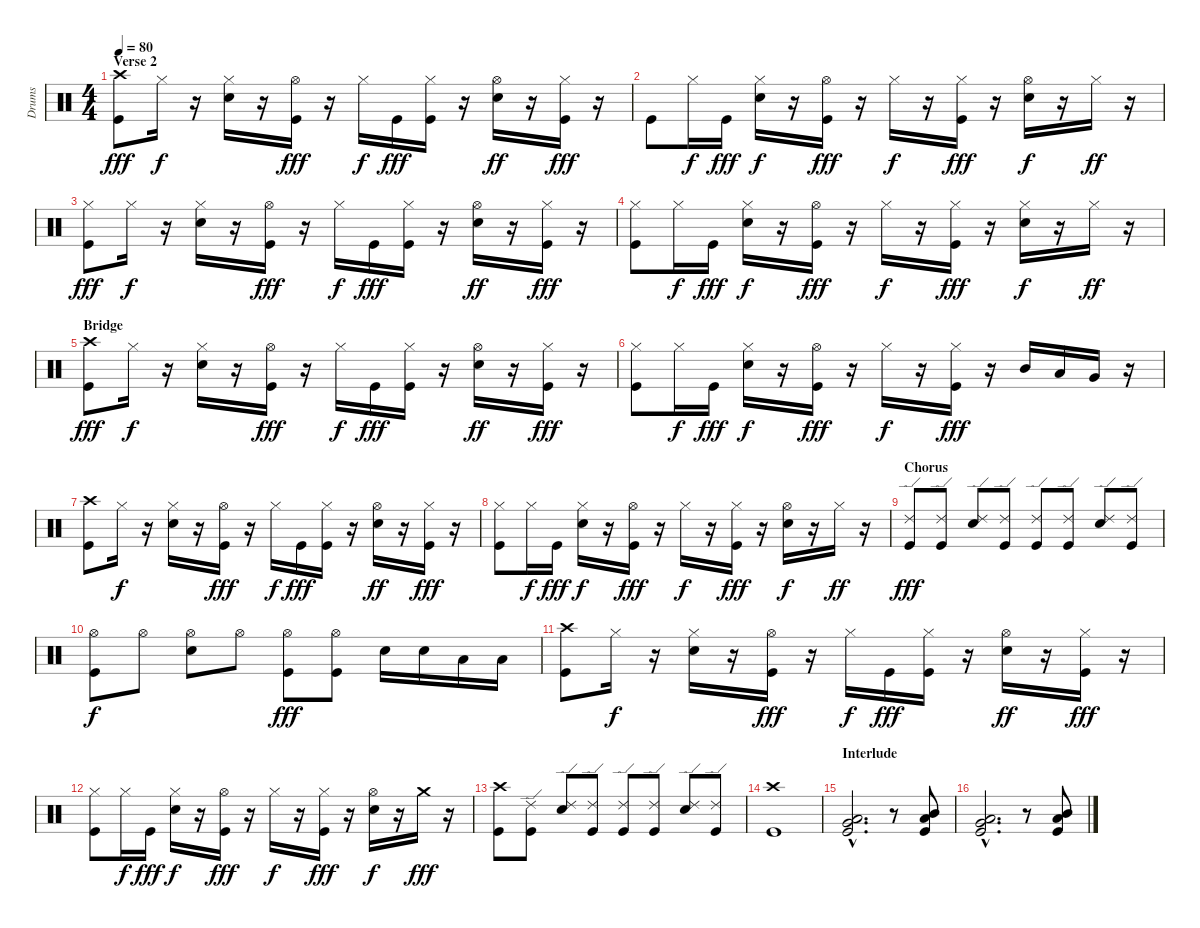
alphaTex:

\track ("Drums" "Drums") {instrument percussion}
\staff {score}
\articulation defaults
\ts (4 4)
\section ("" "Verse 2")
\tempo 80
\clef neutral
\ks c
("Crash high (hit)" "Kick (hit)").8{dy fff} "Hi-Hat (closed)".16{dy f} r.16 ("Hi-Hat (closed)" "Snare (hit) 2").16 r.16 ("Hi-Hat (open)" "Kick (hit)").16{dy fff} r.16 "Hi-Hat (closed)".16{dy f} "Kick (hit)".16{dy fff} ("Hi-Hat (closed)" "Kick (hit)").16 r.16 ("Hi-Hat (open)" "Snare (hit) 2").16{dy ff} r.16 ("Hi-Hat (closed)" "Kick (hit)").16{dy fff} r.16 |
"Kick (hit)".8 "Hi-Hat (closed)".16{dy f} "Kick (hit)".16{dy fff} ("Hi-Hat (closed)" "Snare (hit) 2").16{dy f} r.16 ("Hi-Hat (open)" "Kick (hit)").16{dy fff} r.16 "Hi-Hat (closed)".16{dy f} r.16 ("Hi-Hat (closed)" "Kick (hit)").16{dy fff} r.16 ("Hi-Hat (open)" "Snare (hit) 2").16{dy f} r.16 "Hi-Hat (closed)".16{dy ff} r.16 |
("Hi-Hat (closed)" "Kick (hit)").8{dy fff} "Hi-Hat (closed)".16{dy f} r.16 ("Hi-Hat (closed)" "Snare (hit) 2").16 r.16 ("Hi-Hat (open)" "Kick (hit)").16{dy fff} r.16 "Hi-Hat (closed)".16{dy f} "Kick (hit)".16{dy fff} ("Hi-Hat (closed)" "Kick (hit)").16 r.16 ("Hi-Hat (open)" "Snare (hit) 2").16{dy ff} r.16 ("Hi-Hat (closed)" "Kick (hit)").16{dy fff} r.16 |
("Hi-Hat (closed)" "Kick (hit)").8 "Hi-Hat (closed)".16{dy f} "Kick (hit)".16{dy fff} ("Hi-Hat (closed)" "Snare (hit) 2").16{dy f} r.16 ("Hi-Hat (open)" "Kick (hit)").16{dy fff} r.16 "Hi-Hat (closed)".16{dy f} r.16 ("Hi-Hat (closed)" "Kick (hit)").16{dy fff} r.16 ("Hi-Hat (closed)" "Snare (hit) 2").16{dy f} r.16 "Hi-Hat (closed)".16{dy ff} r.16 |
\section ("" "Bridge")
("Crash high (hit)" "Kick (hit)").8{dy fff} "Hi-Hat (closed)".16{dy f} r.16 ("Hi-Hat (closed)" "Snare (hit) 2").16 r.16 ("Hi-Hat (open)" "Kick (hit)").16{dy fff} r.16 "Hi-Hat (closed)".16{dy f} "Kick (hit)".16{dy fff} ("Hi-Hat (closed)" "Kick (hit)").16 r.16 ("Hi-Hat (open)" "Snare (hit) 2").16{dy ff} r.16 ("Hi-Hat (closed)" "Kick (hit)").16{dy fff} r.16 |
("Hi-Hat (closed)" "Kick (hit)").8 "Hi-Hat (closed)".16{dy f} "Kick (hit)".16{dy fff} ("Hi-Hat (closed)" "Snare (hit) 2").16{dy f} r.16 ("Hi-Hat (open)" "Kick (hit)").16{dy fff} r.16 "Hi-Hat (closed)".16{dy f} r.16 ("Hi-Hat (closed)" "Kick (hit)").16{dy fff} r.16 "Mid Tom (hit)".16 "Low Tom (hit)".16 "Very Low Tom (hit)".16 r.16 |
("Crash high (hit)" "Kick (hit)").8 "Hi-Hat (closed)".16{dy f} r.16 ("Hi-Hat (closed)" "Snare (hit) 2").16 r.16 ("Hi-Hat (open)" "Kick (hit)").16{dy fff} r.16 "Hi-Hat (closed)".16{dy f} "Kick (hit)".16{dy fff} ("Hi-Hat (closed)" "Kick (hit)").16 r.16 ("Hi-Hat (open)" "Snare (hit) 2").16{dy ff} r.16 ("Hi-Hat (closed)" "Kick (hit)").16{dy fff} r.16 |
("Hi-Hat (closed)" "Kick (hit)").8 "Hi-Hat (closed)".16{dy f} "Kick (hit)".16{dy fff} ("Hi-Hat (closed)" "Snare (hit) 2").16{dy f} r.16 ("Hi-Hat (open)" "Kick (hit)").16{dy fff} r.16 "Hi-Hat (closed)".16{dy f} r.16 ("Hi-Hat (closed)" "Kick (hit)").16{dy fff} r.16 ("Hi-Hat (open)" "Snare (hit) 2").16{dy f} r.16 "Hi-Hat (closed)".16{dy ff} r.16 |
\section ("" "Chorus")
("Ride (edge) 2" "Kick (hit)").8{dy fff} ("Ride (edge) 2" "Kick (hit)").8 ("Ride (edge) 2" "Snare (hit) 2").8 ("Ride (edge) 2" "Kick (hit)").8 ("Ride (edge) 2" "Kick (hit)").8 ("Ride (edge) 2" "Kick (hit)").8 ("Ride (edge) 2" "Snare (hit) 2").8 ("Ride (edge) 2" "Kick (hit)").8 |
("Hi-Hat (open)" "Kick (hit)").8{dy f} "Hi-Hat (open)".8 ("Hi-Hat (open)" "Snare (hit) 2").8 "Hi-Hat (open)".8 ("Hi-Hat (open)" "Kick (hit)").8{dy fff} ("Hi-Hat (open)" "Kick (hit)").8 "Snare (hit) 2".16 "Snare (hit) 2".16 "Low Tom (hit)".16 "Low Tom (hit)".16 |
("Crash high (hit)" "Kick (hit)").8 "Hi-Hat (closed)".16{dy f} r.16 ("Hi-Hat (closed)" "Snare (hit) 2").16 r.16 ("Hi-Hat (open)" "Kick (hit)").16{dy fff} r.16 "Hi-Hat (closed)".16{dy f} "Kick (hit)".16{dy fff} ("Hi-Hat (closed)" "Kick (hit)").16 r.16 ("Hi-Hat (open)" "Snare (hit) 2").16{dy ff} r.16 ("Hi-Hat (closed)" "Kick (hit)").16{dy fff} r.16 |
("Hi-Hat (closed)" "Kick (hit)").8 "Hi-Hat (closed)".16{dy f} "Kick (hit)".16{dy fff} ("Hi-Hat (closed)" "Snare (hit) 2").16{dy f} r.16 ("Hi-Hat (open)" "Kick (hit)").16{dy fff} r.16 "Hi-Hat (closed)".16{dy f} r.16 ("Hi-Hat (closed)" "Kick (hit)").16{dy fff} r.16 ("Hi-Hat (open)" "Snare (hit) 2").16{dy f} r.16 "Crash medium (hit)".16{dy fff} r.16 |
("Crash high (hit)" "Kick (hit)").8 ("Ride (edge) 2" "Kick (hit)").8 ("Ride (edge) 2" "Snare (hit) 2").8 ("Ride (edge) 2" "Kick (hit)").8 ("Ride (edge) 2" "Kick (hit)").8 ("Ride (edge) 2" "Kick (hit)").8 ("Ride (edge) 2" "Snare (hit) 2").8 ("Ride (edge) 2" "Kick (hit)").8 |
("Crash high (hit)" "Kick (hit)").1 |
\section ("" "Interlude")
("Low Floor Tom (hit)"{hac} "Very Low Tom (hit)"{hac} "Kick (hit)"{hac}).2{d} r.8 ("Mid Tom (hit)" "Low Tom (hit)" "Kick (hit)").8 |
("Low Floor Tom (hit)"{hac} "Very Low Tom (hit)"{hac} "Kick (hit)"{hac}).2{d} r.8 ("Mid Tom (hit)" "Low Tom (hit)" "Kick (hit)").8
